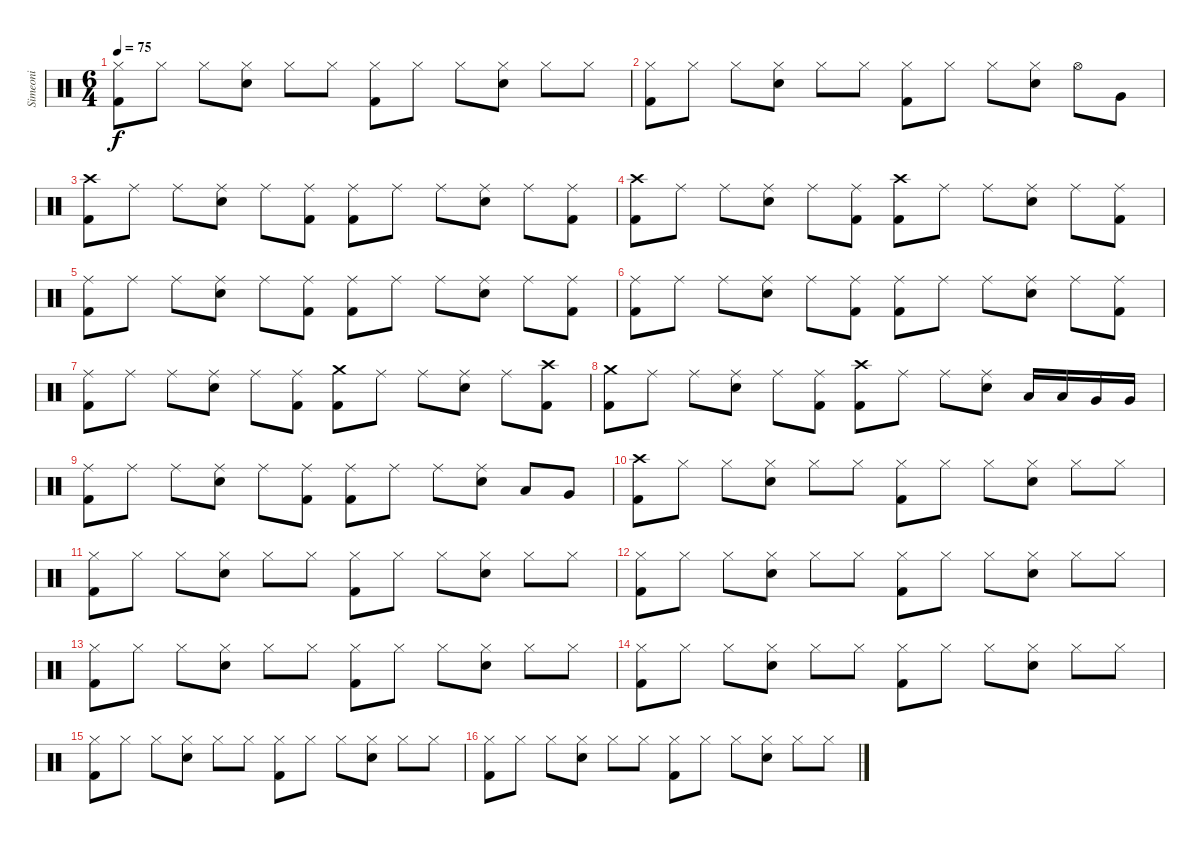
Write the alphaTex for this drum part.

\track ("Simeoni" "Simeoni") {instrument percussion}
\staff {score}
\articulation defaults
\ts (6 4)
\tempo 75
\clef neutral
\ks c
("Hi-Hat (closed)" "Kick (hit) 2").8{dy f} "Hi-Hat (closed)".8 "Hi-Hat (closed)".8 ("Hi-Hat (closed)" "Electric Snare (hit)").8 "Hi-Hat (closed)".8 "Hi-Hat (closed)".8 ("Hi-Hat (closed)" "Kick (hit) 2").8 "Hi-Hat (closed)".8 "Hi-Hat (closed)".8 ("Hi-Hat (closed)" "Electric Snare (hit)").8 "Hi-Hat (closed)".8 "Hi-Hat (closed)".8 |
("Hi-Hat (closed)" "Kick (hit) 2").8 "Hi-Hat (closed)".8 "Hi-Hat (closed)".8 ("Hi-Hat (closed)" "Electric Snare (hit)").8 "Hi-Hat (closed)".8 "Hi-Hat (closed)".8 ("Hi-Hat (closed)" "Kick (hit) 2").8 "Hi-Hat (closed)".8 "Hi-Hat (closed)".8 ("Hi-Hat (closed)" "Electric Snare (hit)").8 "Hi-Hat (open)".8 "Very Low Tom (hit)".8 |
("Crash high (hit)" "Kick (hit) 2").8 "Ride (middle)".8 "Ride (middle)".8 ("Ride (middle)" "Electric Snare (hit)").8 "Ride (middle)".8 ("Ride (middle)" "Kick (hit) 2").8 ("Ride (middle)" "Kick (hit) 2").8 "Ride (middle)".8 "Ride (middle)".8 ("Ride (middle)" "Electric Snare (hit)").8 "Ride (middle)".8 ("Ride (middle)" "Kick (hit) 2").8 |
("Crash high (hit)" "Kick (hit) 2").8 "Ride (middle)".8 "Ride (middle)".8 ("Ride (middle)" "Electric Snare (hit)").8 "Ride (middle)".8 ("Ride (middle)" "Kick (hit) 2").8 ("Crash high (hit)" "Kick (hit) 2").8 "Ride (middle)".8 "Ride (middle)".8 ("Ride (middle)" "Electric Snare (hit)").8 "Ride (middle)".8 ("Ride (middle)" "Kick (hit) 2").8 |
("Ride (middle)" "Kick (hit) 2").8 "Ride (middle)".8 "Ride (middle)".8 ("Ride (middle)" "Electric Snare (hit)").8 "Ride (middle)".8 ("Ride (middle)" "Kick (hit) 2").8 ("Ride (middle)" "Kick (hit) 2").8 "Ride (middle)".8 "Ride (middle)".8 ("Ride (middle)" "Electric Snare (hit)").8 "Ride (middle)".8 ("Ride (middle)" "Kick (hit) 2").8 |
("Ride (middle)" "Kick (hit) 2").8 "Ride (middle)".8 "Ride (middle)".8 ("Ride (middle)" "Electric Snare (hit)").8 "Ride (middle)".8 ("Ride (middle)" "Kick (hit) 2").8 ("Ride (middle)" "Kick (hit) 2").8 "Ride (middle)".8 "Ride (middle)".8 ("Ride (middle)" "Electric Snare (hit)").8 "Ride (middle)".8 ("Ride (middle)" "Kick (hit) 2").8 |
("Ride (middle)" "Kick (hit) 2").8 "Ride (middle)".8 "Ride (middle)".8 ("Ride (middle)" "Electric Snare (hit)").8 "Ride (middle)".8 ("Ride (middle)" "Kick (hit) 2").8 ("Crash medium (hit)" "Kick (hit) 2").8 "Ride (middle)".8 "Ride (middle)".8 ("Ride (middle)" "Electric Snare (hit)").8 "Ride (middle)".8 ("Crash high (hit)" "Kick (hit) 2").8 |
("Crash medium (hit)" "Kick (hit) 2").8 "Ride (middle)".8 "Ride (middle)".8 ("Ride (middle)" "Electric Snare (hit)").8 "Ride (middle)".8 ("Ride (middle)" "Kick (hit) 2").8 ("Crash high (hit)" "Kick (hit) 2").8 "Ride (middle)".8 "Ride (middle)".8 ("Ride (middle)" "Electric Snare (hit)").8 "Low Tom (hit)".16 "Low Tom (hit)".16 "Very Low Tom (hit)".16 "Very Low Tom (hit)".16 |
("Ride (middle)" "Kick (hit) 2").8 "Ride (middle)".8 "Ride (middle)".8 ("Ride (middle)" "Electric Snare (hit)").8 "Ride (middle)".8 ("Ride (middle)" "Kick (hit) 2").8 ("Ride (middle)" "Kick (hit) 2").8 "Ride (middle)".8 "Ride (middle)".8 ("Ride (middle)" "Electric Snare (hit)").8 "Low Tom (hit)".8 "Very Low Tom (hit)".8 |
("Crash high (hit)" "Kick (hit) 2").8 "Hi-Hat (closed)".8 "Hi-Hat (closed)".8 ("Hi-Hat (closed)" "Electric Snare (hit)").8 "Hi-Hat (closed)".8 "Hi-Hat (closed)".8 ("Hi-Hat (closed)" "Kick (hit) 2").8 "Hi-Hat (closed)".8 "Hi-Hat (closed)".8 ("Hi-Hat (closed)" "Electric Snare (hit)").8 "Hi-Hat (closed)".8 "Hi-Hat (closed)".8 |
("Hi-Hat (closed)" "Kick (hit) 2").8 "Hi-Hat (closed)".8 "Hi-Hat (closed)".8 ("Hi-Hat (closed)" "Electric Snare (hit)").8 "Hi-Hat (closed)".8 "Hi-Hat (closed)".8 ("Hi-Hat (closed)" "Kick (hit) 2").8 "Hi-Hat (closed)".8 "Hi-Hat (closed)".8 ("Hi-Hat (closed)" "Electric Snare (hit)").8 "Hi-Hat (closed)".8 "Hi-Hat (closed)".8 |
("Hi-Hat (closed)" "Kick (hit) 2").8 "Hi-Hat (closed)".8 "Hi-Hat (closed)".8 ("Hi-Hat (closed)" "Electric Snare (hit)").8 "Hi-Hat (closed)".8 "Hi-Hat (closed)".8 ("Hi-Hat (closed)" "Kick (hit) 2").8 "Hi-Hat (closed)".8 "Hi-Hat (closed)".8 ("Hi-Hat (closed)" "Electric Snare (hit)").8 "Hi-Hat (closed)".8 "Hi-Hat (closed)".8 |
("Hi-Hat (closed)" "Kick (hit) 2").8 "Hi-Hat (closed)".8 "Hi-Hat (closed)".8 ("Hi-Hat (closed)" "Electric Snare (hit)").8 "Hi-Hat (closed)".8 "Hi-Hat (closed)".8 ("Hi-Hat (closed)" "Kick (hit) 2").8 "Hi-Hat (closed)".8 "Hi-Hat (closed)".8 ("Hi-Hat (closed)" "Electric Snare (hit)").8 "Hi-Hat (closed)".8 "Hi-Hat (closed)".8 |
("Hi-Hat (closed)" "Kick (hit) 2").8 "Hi-Hat (closed)".8 "Hi-Hat (closed)".8 ("Hi-Hat (closed)" "Electric Snare (hit)").8 "Hi-Hat (closed)".8 "Hi-Hat (closed)".8 ("Hi-Hat (closed)" "Kick (hit) 2").8 "Hi-Hat (closed)".8 "Hi-Hat (closed)".8 ("Hi-Hat (closed)" "Electric Snare (hit)").8 "Hi-Hat (closed)".8 "Hi-Hat (closed)".8 |
("Hi-Hat (closed)" "Kick (hit) 2").8 "Hi-Hat (closed)".8 "Hi-Hat (closed)".8 ("Hi-Hat (closed)" "Electric Snare (hit)").8 "Hi-Hat (closed)".8 "Hi-Hat (closed)".8 ("Hi-Hat (closed)" "Kick (hit) 2").8 "Hi-Hat (closed)".8 "Hi-Hat (closed)".8 ("Hi-Hat (closed)" "Electric Snare (hit)").8 "Hi-Hat (closed)".8 "Hi-Hat (closed)".8 |
("Hi-Hat (closed)" "Kick (hit) 2").8 "Hi-Hat (closed)".8 "Hi-Hat (closed)".8 ("Hi-Hat (closed)" "Electric Snare (hit)").8 "Hi-Hat (closed)".8 "Hi-Hat (closed)".8 ("Hi-Hat (closed)" "Kick (hit) 2").8 "Hi-Hat (closed)".8 "Hi-Hat (closed)".8 ("Hi-Hat (closed)" "Electric Snare (hit)").8 "Hi-Hat (closed)".8 "Hi-Hat (closed)".8
